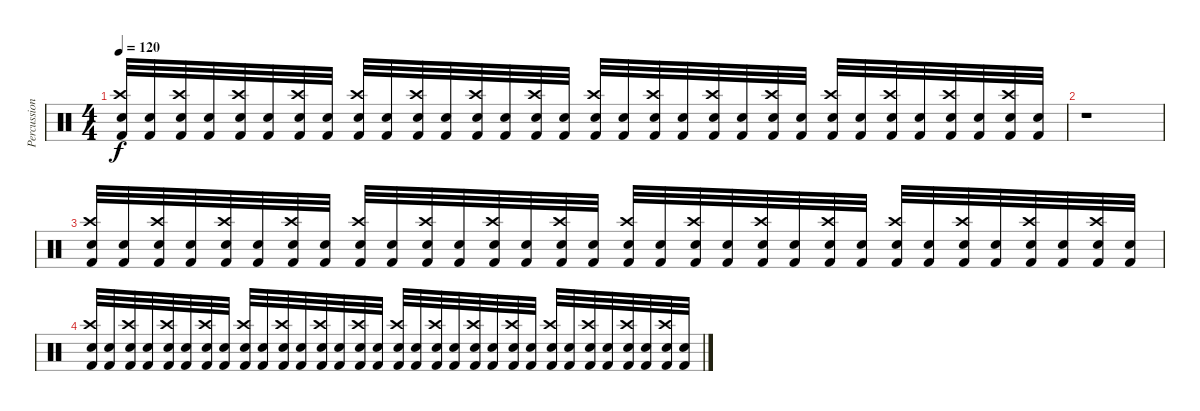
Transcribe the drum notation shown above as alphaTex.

\track ("Percussion" "Percussion") {instrument percussion}
\staff {score}
\articulation defaults
\ts (4 4)
\tempo 120
\clef neutral
\ks c
("Kick (hit) 2" "Crash high (hit)" "Snare (hit) 2").32{dy f} ("Kick (hit) 2" "Snare (hit) 2").32 ("Kick (hit) 2" "Crash high (hit)" "Snare (hit) 2").32 ("Kick (hit) 2" "Snare (hit) 2").32 ("Kick (hit) 2" "Crash high (hit)" "Snare (hit) 2").32 ("Kick (hit) 2" "Snare (hit) 2").32 ("Kick (hit) 2" "Crash high (hit)" "Snare (hit) 2").32 ("Kick (hit) 2" "Snare (hit) 2").32 ("Kick (hit) 2" "Crash high (hit)" "Snare (hit) 2").32 ("Kick (hit) 2" "Snare (hit) 2").32 ("Kick (hit) 2" "Crash high (hit)" "Snare (hit) 2").32 ("Kick (hit) 2" "Snare (hit) 2").32 ("Kick (hit) 2" "Crash high (hit)" "Snare (hit) 2").32 ("Kick (hit) 2" "Snare (hit) 2").32 ("Kick (hit) 2" "Crash high (hit)" "Snare (hit) 2").32 ("Kick (hit) 2" "Snare (hit) 2").32 ("Kick (hit) 2" "Crash high (hit)" "Snare (hit) 2").32 ("Kick (hit) 2" "Snare (hit) 2").32 ("Kick (hit) 2" "Crash high (hit)" "Snare (hit) 2").32 ("Kick (hit) 2" "Snare (hit) 2").32 ("Kick (hit) 2" "Crash high (hit)" "Snare (hit) 2").32 ("Kick (hit) 2" "Snare (hit) 2").32 ("Kick (hit) 2" "Crash high (hit)" "Snare (hit) 2").32 ("Kick (hit) 2" "Snare (hit) 2").32 ("Kick (hit) 2" "Crash high (hit)" "Snare (hit) 2").32 ("Kick (hit) 2" "Snare (hit) 2").32 ("Kick (hit) 2" "Crash high (hit)" "Snare (hit) 2").32 ("Kick (hit) 2" "Snare (hit) 2").32 ("Kick (hit) 2" "Crash high (hit)" "Snare (hit) 2").32 ("Kick (hit) 2" "Snare (hit) 2").32 ("Kick (hit) 2" "Crash high (hit)" "Snare (hit) 2").32 ("Kick (hit) 2" "Snare (hit) 2").32 |
r.1 |
("Kick (hit) 2" "Crash high (hit)" "Snare (hit) 2").32 ("Kick (hit) 2" "Snare (hit) 2").32 ("Kick (hit) 2" "Crash high (hit)" "Snare (hit) 2").32 ("Kick (hit) 2" "Snare (hit) 2").32 ("Kick (hit) 2" "Crash high (hit)" "Snare (hit) 2").32 ("Kick (hit) 2" "Snare (hit) 2").32 ("Kick (hit) 2" "Crash high (hit)" "Snare (hit) 2").32 ("Kick (hit) 2" "Snare (hit) 2").32 ("Kick (hit) 2" "Crash high (hit)" "Snare (hit) 2").32 ("Kick (hit) 2" "Snare (hit) 2").32 ("Kick (hit) 2" "Crash high (hit)" "Snare (hit) 2").32 ("Kick (hit) 2" "Snare (hit) 2").32 ("Kick (hit) 2" "Crash high (hit)" "Snare (hit) 2").32 ("Kick (hit) 2" "Snare (hit) 2").32 ("Kick (hit) 2" "Crash high (hit)" "Snare (hit) 2").32 ("Kick (hit) 2" "Snare (hit) 2").32 ("Kick (hit) 2" "Crash high (hit)" "Snare (hit) 2").32 ("Kick (hit) 2" "Snare (hit) 2").32 ("Kick (hit) 2" "Crash high (hit)" "Snare (hit) 2").32 ("Kick (hit) 2" "Snare (hit) 2").32 ("Kick (hit) 2" "Crash high (hit)" "Snare (hit) 2").32 ("Kick (hit) 2" "Snare (hit) 2").32 ("Kick (hit) 2" "Crash high (hit)" "Snare (hit) 2").32 ("Kick (hit) 2" "Snare (hit) 2").32 ("Kick (hit) 2" "Crash high (hit)" "Snare (hit) 2").32 ("Kick (hit) 2" "Snare (hit) 2").32 ("Kick (hit) 2" "Crash high (hit)" "Snare (hit) 2").32 ("Kick (hit) 2" "Snare (hit) 2").32 ("Kick (hit) 2" "Crash high (hit)" "Snare (hit) 2").32 ("Kick (hit) 2" "Snare (hit) 2").32 ("Kick (hit) 2" "Crash high (hit)" "Snare (hit) 2").32 ("Kick (hit) 2" "Snare (hit) 2").32 |
("Kick (hit) 2" "Crash high (hit)" "Snare (hit) 2").32 ("Kick (hit) 2" "Snare (hit) 2").32 ("Kick (hit) 2" "Crash high (hit)" "Snare (hit) 2").32 ("Kick (hit) 2" "Snare (hit) 2").32 ("Kick (hit) 2" "Crash high (hit)" "Snare (hit) 2").32 ("Kick (hit) 2" "Snare (hit) 2").32 ("Kick (hit) 2" "Crash high (hit)" "Snare (hit) 2").32 ("Kick (hit) 2" "Snare (hit) 2").32 ("Kick (hit) 2" "Crash high (hit)" "Snare (hit) 2").32 ("Kick (hit) 2" "Snare (hit) 2").32 ("Kick (hit) 2" "Crash high (hit)" "Snare (hit) 2").32 ("Kick (hit) 2" "Snare (hit) 2").32 ("Kick (hit) 2" "Crash high (hit)" "Snare (hit) 2").32 ("Kick (hit) 2" "Snare (hit) 2").32 ("Kick (hit) 2" "Crash high (hit)" "Snare (hit) 2").32 ("Kick (hit) 2" "Snare (hit) 2").32 ("Kick (hit) 2" "Crash high (hit)" "Snare (hit) 2").32 ("Kick (hit) 2" "Snare (hit) 2").32 ("Kick (hit) 2" "Crash high (hit)" "Snare (hit) 2").32 ("Kick (hit) 2" "Snare (hit) 2").32 ("Kick (hit) 2" "Crash high (hit)" "Snare (hit) 2").32 ("Kick (hit) 2" "Snare (hit) 2").32 ("Kick (hit) 2" "Crash high (hit)" "Snare (hit) 2").32 ("Kick (hit) 2" "Snare (hit) 2").32 ("Kick (hit) 2" "Crash high (hit)" "Snare (hit) 2").32 ("Kick (hit) 2" "Snare (hit) 2").32 ("Kick (hit) 2" "Crash high (hit)" "Snare (hit) 2").32 ("Kick (hit) 2" "Snare (hit) 2").32 ("Kick (hit) 2" "Crash high (hit)" "Snare (hit) 2").32 ("Kick (hit) 2" "Snare (hit) 2").32 ("Kick (hit) 2" "Crash high (hit)" "Snare (hit) 2").32 ("Kick (hit) 2" "Snare (hit) 2").32
